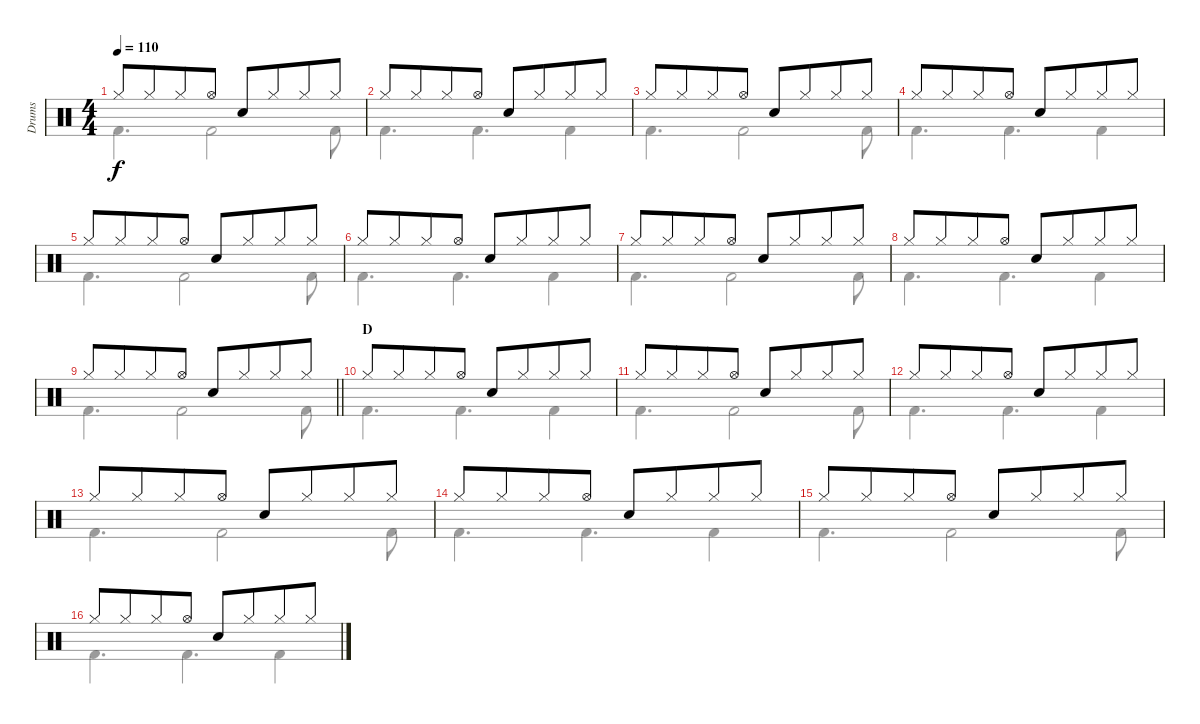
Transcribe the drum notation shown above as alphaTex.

\track ("Drums" "Drums") {instrument percussion}
\staff {score}
\articulation defaults
\voice
\ts (4 4)
\tempo 110
\clef neutral
\ks c "Hi-Hat (closed)".8{dy f} "Hi-Hat (closed)".8{beam merge} "Hi-Hat (closed)".8 "Hi-Hat (open)".8 "Snare (hit) 2".8 "Hi-Hat (closed)".8{beam merge} "Hi-Hat (closed)".8 "Hi-Hat (closed)".8
|
"Hi-Hat (closed)".8 "Hi-Hat (closed)".8{beam merge} "Hi-Hat (closed)".8 "Hi-Hat (open)".8 "Snare (hit) 2".8 "Hi-Hat (closed)".8{beam merge} "Hi-Hat (closed)".8 "Hi-Hat (closed)".8 |
"Hi-Hat (closed)".8 "Hi-Hat (closed)".8{beam merge} "Hi-Hat (closed)".8 "Hi-Hat (open)".8 "Snare (hit) 2".8 "Hi-Hat (closed)".8{beam merge} "Hi-Hat (closed)".8 "Hi-Hat (closed)".8 |
"Hi-Hat (closed)".8 "Hi-Hat (closed)".8{beam merge} "Hi-Hat (closed)".8 "Hi-Hat (open)".8 "Snare (hit) 2".8 "Hi-Hat (closed)".8{beam merge} "Hi-Hat (closed)".8 "Hi-Hat (closed)".8 |
"Hi-Hat (closed)".8 "Hi-Hat (closed)".8{beam merge} "Hi-Hat (closed)".8 "Hi-Hat (open)".8 "Snare (hit) 2".8 "Hi-Hat (closed)".8{beam merge} "Hi-Hat (closed)".8 "Hi-Hat (closed)".8 |
"Hi-Hat (closed)".8 "Hi-Hat (closed)".8{beam merge} "Hi-Hat (closed)".8 "Hi-Hat (open)".8 "Snare (hit) 2".8 "Hi-Hat (closed)".8{beam merge} "Hi-Hat (closed)".8 "Hi-Hat (closed)".8 |
"Hi-Hat (closed)".8 "Hi-Hat (closed)".8{beam merge} "Hi-Hat (closed)".8 "Hi-Hat (open)".8 "Snare (hit) 2".8 "Hi-Hat (closed)".8{beam merge} "Hi-Hat (closed)".8 "Hi-Hat (closed)".8 |
"Hi-Hat (closed)".8 "Hi-Hat (closed)".8{beam merge} "Hi-Hat (closed)".8 "Hi-Hat (open)".8 "Snare (hit) 2".8 "Hi-Hat (closed)".8{beam merge} "Hi-Hat (closed)".8 "Hi-Hat (closed)".8 |
\barLineRight lightlight "Hi-Hat (closed)".8 "Hi-Hat (closed)".8{beam merge} "Hi-Hat (closed)".8 "Hi-Hat (open)".8 "Snare (hit) 2".8 "Hi-Hat (closed)".8{beam merge} "Hi-Hat (closed)".8 "Hi-Hat (closed)".8
|
\section ("" "D")
"Hi-Hat (closed)".8 "Hi-Hat (closed)".8{beam merge} "Hi-Hat (closed)".8 "Hi-Hat (open)".8 "Snare (hit) 2".8 "Hi-Hat (closed)".8{beam merge} "Hi-Hat (closed)".8 "Hi-Hat (closed)".8 |
"Hi-Hat (closed)".8 "Hi-Hat (closed)".8{beam merge} "Hi-Hat (closed)".8 "Hi-Hat (open)".8 "Snare (hit) 2".8 "Hi-Hat (closed)".8{beam merge} "Hi-Hat (closed)".8 "Hi-Hat (closed)".8 |
"Hi-Hat (closed)".8 "Hi-Hat (closed)".8{beam merge} "Hi-Hat (closed)".8 "Hi-Hat (open)".8 "Snare (hit) 2".8 "Hi-Hat (closed)".8{beam merge} "Hi-Hat (closed)".8 "Hi-Hat (closed)".8 |
"Hi-Hat (closed)".8 "Hi-Hat (closed)".8{beam merge} "Hi-Hat (closed)".8 "Hi-Hat (open)".8 "Snare (hit) 2".8 "Hi-Hat (closed)".8{beam merge} "Hi-Hat (closed)".8 "Hi-Hat (closed)".8 |
"Hi-Hat (closed)".8 "Hi-Hat (closed)".8{beam merge} "Hi-Hat (closed)".8 "Hi-Hat (open)".8 "Snare (hit) 2".8 "Hi-Hat (closed)".8{beam merge} "Hi-Hat (closed)".8 "Hi-Hat (closed)".8 |
"Hi-Hat (closed)".8 "Hi-Hat (closed)".8{beam merge} "Hi-Hat (closed)".8 "Hi-Hat (open)".8 "Snare (hit) 2".8 "Hi-Hat (closed)".8{beam merge} "Hi-Hat (closed)".8 "Hi-Hat (closed)".8 |
"Hi-Hat (closed)".8 "Hi-Hat (closed)".8{beam merge} "Hi-Hat (closed)".8 "Hi-Hat (open)".8 "Snare (hit) 2".8 "Hi-Hat (closed)".8{beam merge} "Hi-Hat (closed)".8 "Hi-Hat (closed)".8
\voice
\clef neutral
\ottava regular
\simile none
\ks c "Kick (hit) 2".4{d dy f} "Kick (hit) 2".2 "Kick (hit) 2".8
|
"Kick (hit) 2".4{d} "Kick (hit) 2".4{d} "Kick (hit) 2".4 |
"Kick (hit) 2".4{d} "Kick (hit) 2".2 "Kick (hit) 2".8 |
"Kick (hit) 2".4{d} "Kick (hit) 2".4{d} "Kick (hit) 2".4 |
"Kick (hit) 2".4{d} "Kick (hit) 2".2 "Kick (hit) 2".8 |
"Kick (hit) 2".4{d} "Kick (hit) 2".4{d} "Kick (hit) 2".4 |
"Kick (hit) 2".4{d} "Kick (hit) 2".2 "Kick (hit) 2".8 |
"Kick (hit) 2".4{d} "Kick (hit) 2".4{d} "Kick (hit) 2".4 |
\barLineRight lightlight "Kick (hit) 2".4{d} "Kick (hit) 2".2 "Kick (hit) 2".8
|
"Kick (hit) 2".4{d} "Kick (hit) 2".4{d} "Kick (hit) 2".4 |
"Kick (hit) 2".4{d} "Kick (hit) 2".2 "Kick (hit) 2".8 |
"Kick (hit) 2".4{d} "Kick (hit) 2".4{d} "Kick (hit) 2".4 |
"Kick (hit) 2".4{d} "Kick (hit) 2".2 "Kick (hit) 2".8 |
"Kick (hit) 2".4{d} "Kick (hit) 2".4{d} "Kick (hit) 2".4 |
"Kick (hit) 2".4{d} "Kick (hit) 2".2 "Kick (hit) 2".8 |
"Kick (hit) 2".4{d} "Kick (hit) 2".4{d} "Kick (hit) 2".4
